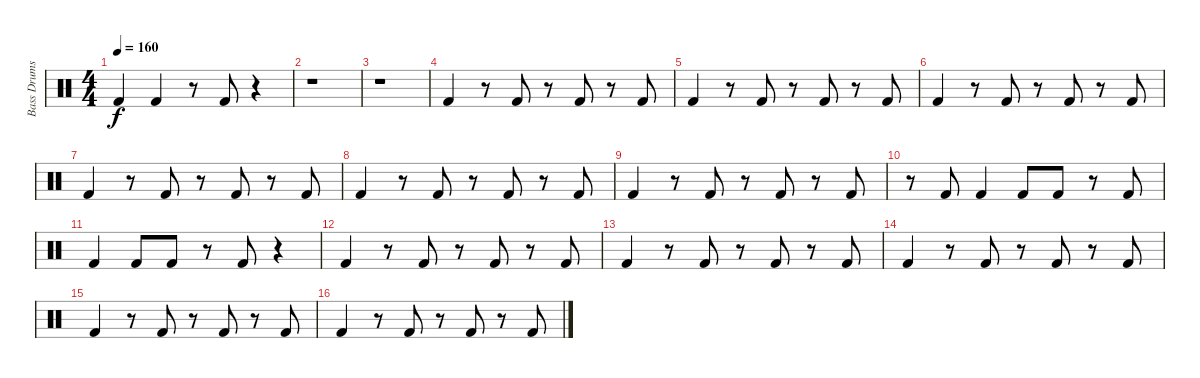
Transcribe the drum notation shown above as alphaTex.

\track ("Bass Drums" "Bass Drums") {instrument percussion}
\staff {score}
\articulation defaults
\ts (4 4)
\tempo 160
\clef neutral
\ks c "Kick (hit) 2".4{dy f} "Kick (hit) 2".4
r.8 "Kick (hit) 2".8 r.4 |
r.1 |
r.1 |
"Kick (hit) 2".4 r.8 "Kick (hit) 2".8 r.8 "Kick (hit) 2".8 r.8 "Kick (hit) 2".8 |
"Kick (hit) 2".4 r.8 "Kick (hit) 2".8 r.8 "Kick (hit) 2".8 r.8 "Kick (hit) 2".8 |
"Kick (hit) 2".4 r.8 "Kick (hit) 2".8 r.8 "Kick (hit) 2".8 r.8 "Kick (hit) 2".8 |
"Kick (hit) 2".4 r.8 "Kick (hit) 2".8 r.8 "Kick (hit) 2".8 r.8 "Kick (hit) 2".8 |
"Kick (hit) 2".4 r.8 "Kick (hit) 2".8 r.8 "Kick (hit) 2".8 r.8 "Kick (hit) 2".8 |
"Kick (hit) 2".4 r.8 "Kick (hit) 2".8 r.8 "Kick (hit) 2".8 r.8 "Kick (hit) 2".8 |
r.8 "Kick (hit) 2".8 "Kick (hit) 2".4 "Kick (hit) 2".8 "Kick (hit) 2".8 r.8 "Kick (hit) 2".8 |
"Kick (hit) 2".4 "Kick (hit) 2".8 "Kick (hit) 2".8 r.8 "Kick (hit) 2".8 r.4 |
"Kick (hit) 2".4 r.8 "Kick (hit) 2".8 r.8 "Kick (hit) 2".8 r.8 "Kick (hit) 2".8 |
"Kick (hit) 2".4 r.8 "Kick (hit) 2".8 r.8 "Kick (hit) 2".8 r.8 "Kick (hit) 2".8 |
"Kick (hit) 2".4 r.8 "Kick (hit) 2".8 r.8 "Kick (hit) 2".8 r.8 "Kick (hit) 2".8 |
"Kick (hit) 2".4 r.8 "Kick (hit) 2".8 r.8 "Kick (hit) 2".8 r.8 "Kick (hit) 2".8 |
"Kick (hit) 2".4 r.8 "Kick (hit) 2".8 r.8 "Kick (hit) 2".8 r.8 "Kick (hit) 2".8
